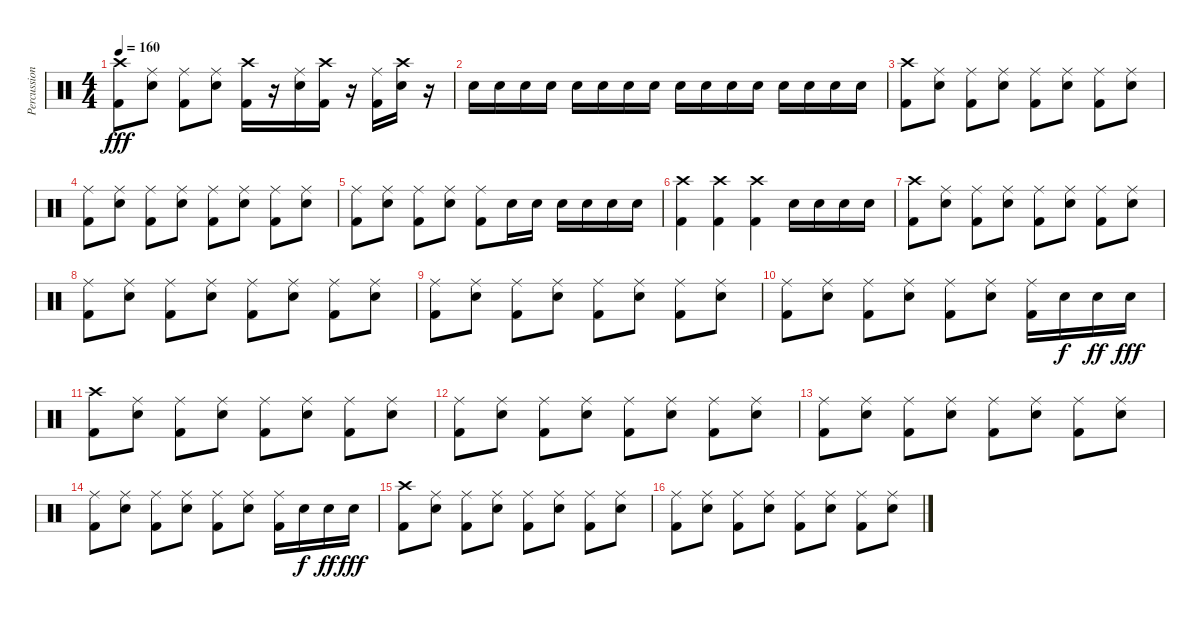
\track ("Percussion" "Percussion") {instrument percussion}
\staff {score}
\articulation defaults
\ts (4 4)
\tempo 160
\clef neutral
\ks c
("Crash high (hit)" "Kick (hit) 2").8{dy fff} ("Ride (middle)" "Electric Snare (hit)").8 ("Ride (middle)" "Kick (hit) 2").8 ("Ride (middle)" "Electric Snare (hit)").8 ("Crash high (hit)" "Kick (hit) 2").16 r.16 ("Ride (middle)" "Electric Snare (hit)").16 ("Crash high (hit)" "Kick (hit) 2").16 r.16 ("Ride (middle)" "Kick (hit) 2").16 ("Crash high (hit)" "Electric Snare (hit)").16 r.16 |
"Electric Snare (hit)".16 "Electric Snare (hit)".16 "Electric Snare (hit)".16 "Electric Snare (hit)".16 "Electric Snare (hit)".16 "Electric Snare (hit)".16 "Electric Snare (hit)".16 "Electric Snare (hit)".16 "Electric Snare (hit)".16 "Electric Snare (hit)".16 "Electric Snare (hit)".16 "Electric Snare (hit)".16 "Electric Snare (hit)".16 "Electric Snare (hit)".16 "Electric Snare (hit)".16 "Electric Snare (hit)".16 |
("Crash high (hit)" "Kick (hit) 2").8 ("Ride (middle)" "Electric Snare (hit)").8 ("Ride (middle)" "Kick (hit) 2").8 ("Ride (middle)" "Electric Snare (hit)").8 ("Ride (middle)" "Kick (hit) 2").8 ("Ride (middle)" "Electric Snare (hit)").8 ("Ride (middle)" "Kick (hit) 2").8 ("Ride (middle)" "Electric Snare (hit)").8 |
("Ride (middle)" "Kick (hit) 2").8 ("Ride (middle)" "Electric Snare (hit)").8 ("Ride (middle)" "Kick (hit) 2").8 ("Ride (middle)" "Electric Snare (hit)").8 ("Ride (middle)" "Kick (hit) 2").8 ("Ride (middle)" "Electric Snare (hit)").8 ("Ride (middle)" "Kick (hit) 2").8 ("Ride (middle)" "Electric Snare (hit)").8 |
("Ride (middle)" "Kick (hit) 2").8 ("Ride (middle)" "Electric Snare (hit)").8 ("Ride (middle)" "Kick (hit) 2").8 ("Ride (middle)" "Electric Snare (hit)").8 ("Ride (middle)" "Kick (hit) 2").8 "Electric Snare (hit)".16 "Electric Snare (hit)".16 "Electric Snare (hit)".16 "Electric Snare (hit)".16 "Electric Snare (hit)".16 "Electric Snare (hit)".16 |
("Crash high (hit)" "Kick (hit) 2").4 ("Crash high (hit)" "Kick (hit) 2").4 ("Crash high (hit)" "Kick (hit) 2").4 "Electric Snare (hit)".16 "Electric Snare (hit)".16 "Electric Snare (hit)".16 "Electric Snare (hit)".16 |
("Crash high (hit)" "Kick (hit) 2").8 ("Ride (middle)" "Electric Snare (hit)").8 ("Ride (middle)" "Kick (hit) 2").8 ("Ride (middle)" "Electric Snare (hit)").8 ("Ride (middle)" "Kick (hit) 2").8 ("Ride (middle)" "Electric Snare (hit)").8 ("Ride (middle)" "Kick (hit) 2").8 ("Ride (middle)" "Electric Snare (hit)").8 |
("Ride (middle)" "Kick (hit) 2").8 ("Ride (middle)" "Electric Snare (hit)").8 ("Ride (middle)" "Kick (hit) 2").8 ("Ride (middle)" "Electric Snare (hit)").8 ("Ride (middle)" "Kick (hit) 2").8 ("Ride (middle)" "Electric Snare (hit)").8 ("Ride (middle)" "Kick (hit) 2").8 ("Ride (middle)" "Electric Snare (hit)").8 |
("Ride (middle)" "Kick (hit) 2").8 ("Ride (middle)" "Electric Snare (hit)").8 ("Ride (middle)" "Kick (hit) 2").8 ("Ride (middle)" "Electric Snare (hit)").8 ("Ride (middle)" "Kick (hit) 2").8 ("Ride (middle)" "Electric Snare (hit)").8 ("Ride (middle)" "Kick (hit) 2").8 ("Ride (middle)" "Electric Snare (hit)").8 |
("Ride (middle)" "Kick (hit) 2").8 ("Ride (middle)" "Electric Snare (hit)").8 ("Ride (middle)" "Kick (hit) 2").8 ("Ride (middle)" "Electric Snare (hit)").8 ("Ride (middle)" "Kick (hit) 2").8 ("Ride (middle)" "Electric Snare (hit)").8 ("Ride (middle)" "Kick (hit) 2").16 "Electric Snare (hit)".16{dy f} "Electric Snare (hit)".16{dy ff} "Electric Snare (hit)".16{dy fff} |
("Crash high (hit)" "Kick (hit) 2").8 ("Ride (middle)" "Electric Snare (hit)").8 ("Ride (middle)" "Kick (hit) 2").8 ("Ride (middle)" "Electric Snare (hit)").8 ("Ride (middle)" "Kick (hit) 2").8 ("Ride (middle)" "Electric Snare (hit)").8 ("Ride (middle)" "Kick (hit) 2").8 ("Ride (middle)" "Electric Snare (hit)").8 |
("Ride (middle)" "Kick (hit) 2").8 ("Ride (middle)" "Electric Snare (hit)").8 ("Ride (middle)" "Kick (hit) 2").8 ("Ride (middle)" "Electric Snare (hit)").8 ("Ride (middle)" "Kick (hit) 2").8 ("Ride (middle)" "Electric Snare (hit)").8 ("Ride (middle)" "Kick (hit) 2").8 ("Ride (middle)" "Electric Snare (hit)").8 |
("Ride (middle)" "Kick (hit) 2").8 ("Ride (middle)" "Electric Snare (hit)").8 ("Ride (middle)" "Kick (hit) 2").8 ("Ride (middle)" "Electric Snare (hit)").8 ("Ride (middle)" "Kick (hit) 2").8 ("Ride (middle)" "Electric Snare (hit)").8 ("Ride (middle)" "Kick (hit) 2").8 ("Ride (middle)" "Electric Snare (hit)").8 |
("Ride (middle)" "Kick (hit) 2").8 ("Ride (middle)" "Electric Snare (hit)").8 ("Ride (middle)" "Kick (hit) 2").8 ("Ride (middle)" "Electric Snare (hit)").8 ("Ride (middle)" "Kick (hit) 2").8 ("Ride (middle)" "Electric Snare (hit)").8 ("Ride (middle)" "Kick (hit) 2").16 "Electric Snare (hit)".16{dy f} "Electric Snare (hit)".16{dy ff} "Electric Snare (hit)".16{dy fff} |
("Crash high (hit)" "Kick (hit) 2").8 ("Ride (middle)" "Electric Snare (hit)").8 ("Ride (middle)" "Kick (hit) 2").8 ("Ride (middle)" "Electric Snare (hit)").8 ("Ride (middle)" "Kick (hit) 2").8 ("Ride (middle)" "Electric Snare (hit)").8 ("Ride (middle)" "Kick (hit) 2").8 ("Ride (middle)" "Electric Snare (hit)").8 |
("Ride (middle)" "Kick (hit) 2").8 ("Ride (middle)" "Electric Snare (hit)").8 ("Ride (middle)" "Kick (hit) 2").8 ("Ride (middle)" "Electric Snare (hit)").8 ("Ride (middle)" "Kick (hit) 2").8 ("Ride (middle)" "Electric Snare (hit)").8 ("Ride (middle)" "Kick (hit) 2").8 ("Ride (middle)" "Electric Snare (hit)").8
